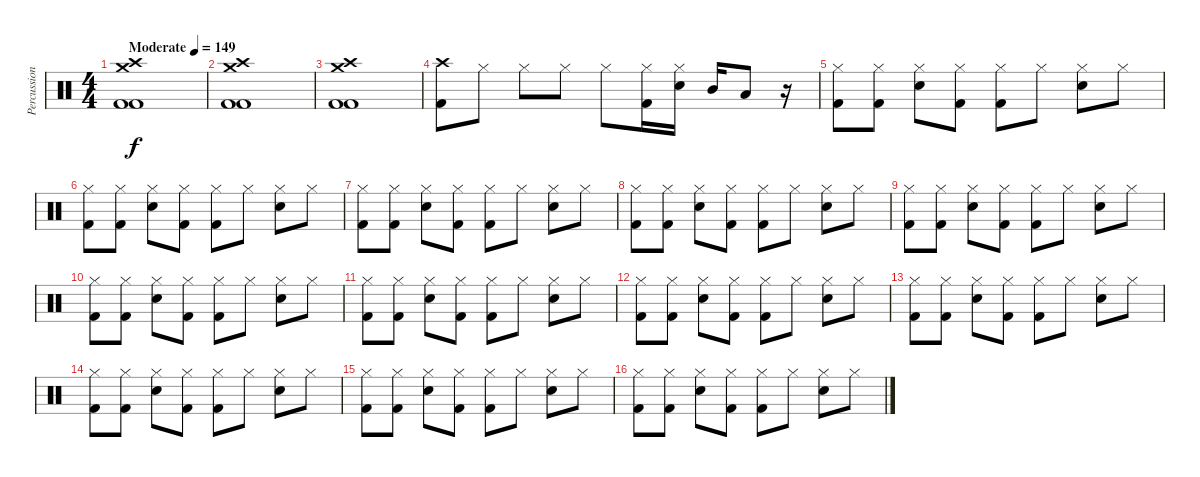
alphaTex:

\track ("Percussion" "Percussion") {instrument percussion}
\staff {score}
\articulation defaults
\ts (4 4)
\tempo (149 "Moderate")
\clef neutral
\ks c
("Crash high (hit)" "Crash medium (hit)" "Kick (hit) 2" "Kick (hit) 2").1{dy f} |
("Crash high (hit)" "Crash medium (hit)" "Kick (hit) 2" "Kick (hit) 2").1 |
("Crash high (hit)" "Crash medium (hit)" "Kick (hit) 2" "Kick (hit) 2").1 |
("Crash high (hit)" "Kick (hit) 2").8 "Hi-Hat (closed)".8 "Hi-Hat (closed)".8 "Hi-Hat (closed)".8 "Hi-Hat (closed)".8 ("Hi-Hat (closed)" "Kick (hit) 2").16 ("Hi-Hat (closed)" "Electric Snare (hit)").16 "Mid Tom (hit)".16 "Low Tom (hit)".8 r.16 |
("Hi-Hat (closed)" "Kick (hit) 2").8 ("Hi-Hat (closed)" "Kick (hit) 2").8 ("Hi-Hat (closed)" "Electric Snare (hit)").8 ("Hi-Hat (closed)" "Kick (hit) 2").8 ("Hi-Hat (closed)" "Kick (hit) 2").8 "Hi-Hat (closed)".8 ("Hi-Hat (closed)" "Electric Snare (hit)").8 "Hi-Hat (closed)".8 |
("Hi-Hat (closed)" "Kick (hit) 2").8 ("Hi-Hat (closed)" "Kick (hit) 2").8 ("Hi-Hat (closed)" "Electric Snare (hit)").8 ("Hi-Hat (closed)" "Kick (hit) 2").8 ("Hi-Hat (closed)" "Kick (hit) 2").8 "Hi-Hat (closed)".8 ("Hi-Hat (closed)" "Electric Snare (hit)").8 "Hi-Hat (closed)".8 |
("Hi-Hat (closed)" "Kick (hit) 2").8 ("Hi-Hat (closed)" "Kick (hit) 2").8 ("Hi-Hat (closed)" "Electric Snare (hit)").8 ("Hi-Hat (closed)" "Kick (hit) 2").8 ("Hi-Hat (closed)" "Kick (hit) 2").8 "Hi-Hat (closed)".8 ("Hi-Hat (closed)" "Electric Snare (hit)").8 "Hi-Hat (closed)".8 |
("Hi-Hat (closed)" "Kick (hit) 2").8 ("Hi-Hat (closed)" "Kick (hit) 2").8 ("Hi-Hat (closed)" "Electric Snare (hit)").8 ("Hi-Hat (closed)" "Kick (hit) 2").8 ("Hi-Hat (closed)" "Kick (hit) 2").8 "Hi-Hat (closed)".8 ("Hi-Hat (closed)" "Electric Snare (hit)").8 "Hi-Hat (closed)".8 |
("Hi-Hat (closed)" "Kick (hit) 2").8 ("Hi-Hat (closed)" "Kick (hit) 2").8 ("Hi-Hat (closed)" "Electric Snare (hit)").8 ("Hi-Hat (closed)" "Kick (hit) 2").8 ("Hi-Hat (closed)" "Kick (hit) 2").8 "Hi-Hat (closed)".8 ("Hi-Hat (closed)" "Electric Snare (hit)").8 "Hi-Hat (closed)".8 |
("Hi-Hat (closed)" "Kick (hit) 2").8 ("Hi-Hat (closed)" "Kick (hit) 2").8 ("Hi-Hat (closed)" "Electric Snare (hit)").8 ("Hi-Hat (closed)" "Kick (hit) 2").8 ("Hi-Hat (closed)" "Kick (hit) 2").8 "Hi-Hat (closed)".8 ("Hi-Hat (closed)" "Electric Snare (hit)").8 "Hi-Hat (closed)".8 |
("Hi-Hat (closed)" "Kick (hit) 2").8 ("Hi-Hat (closed)" "Kick (hit) 2").8 ("Hi-Hat (closed)" "Electric Snare (hit)").8 ("Hi-Hat (closed)" "Kick (hit) 2").8 ("Hi-Hat (closed)" "Kick (hit) 2").8 "Hi-Hat (closed)".8 ("Hi-Hat (closed)" "Electric Snare (hit)").8 "Hi-Hat (closed)".8 |
("Hi-Hat (closed)" "Kick (hit) 2").8 ("Hi-Hat (closed)" "Kick (hit) 2").8 ("Hi-Hat (closed)" "Electric Snare (hit)").8 ("Hi-Hat (closed)" "Kick (hit) 2").8 ("Hi-Hat (closed)" "Kick (hit) 2").8 "Hi-Hat (closed)".8 ("Hi-Hat (closed)" "Electric Snare (hit)").8 "Hi-Hat (closed)".8 |
("Hi-Hat (closed)" "Kick (hit) 2").8 ("Hi-Hat (closed)" "Kick (hit) 2").8 ("Hi-Hat (closed)" "Electric Snare (hit)").8 ("Hi-Hat (closed)" "Kick (hit) 2").8 ("Hi-Hat (closed)" "Kick (hit) 2").8 "Hi-Hat (closed)".8 ("Hi-Hat (closed)" "Electric Snare (hit)").8 "Hi-Hat (closed)".8 |
("Hi-Hat (closed)" "Kick (hit) 2").8 ("Hi-Hat (closed)" "Kick (hit) 2").8 ("Hi-Hat (closed)" "Electric Snare (hit)").8 ("Hi-Hat (closed)" "Kick (hit) 2").8 ("Hi-Hat (closed)" "Kick (hit) 2").8 "Hi-Hat (closed)".8 ("Hi-Hat (closed)" "Electric Snare (hit)").8 "Hi-Hat (closed)".8 |
("Hi-Hat (closed)" "Kick (hit) 2").8 ("Hi-Hat (closed)" "Kick (hit) 2").8 ("Hi-Hat (closed)" "Electric Snare (hit)").8 ("Hi-Hat (closed)" "Kick (hit) 2").8 ("Hi-Hat (closed)" "Kick (hit) 2").8 "Hi-Hat (closed)".8 ("Hi-Hat (closed)" "Electric Snare (hit)").8 "Hi-Hat (closed)".8 |
("Hi-Hat (closed)" "Kick (hit) 2").8 ("Hi-Hat (closed)" "Kick (hit) 2").8 ("Hi-Hat (closed)" "Electric Snare (hit)").8 ("Hi-Hat (closed)" "Kick (hit) 2").8 ("Hi-Hat (closed)" "Kick (hit) 2").8 "Hi-Hat (closed)".8 ("Hi-Hat (closed)" "Electric Snare (hit)").8 "Hi-Hat (closed)".8
